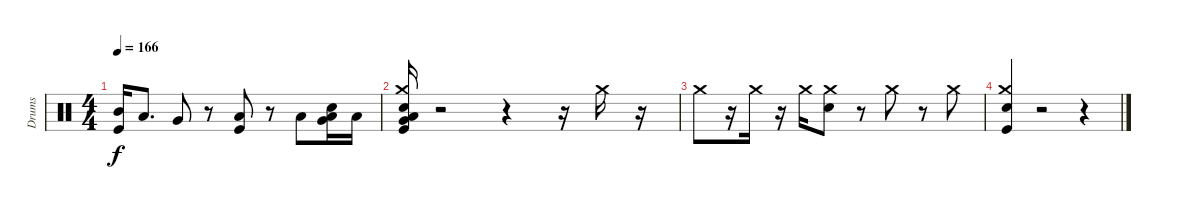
\track ("Drums" "Drums") {instrument percussion}
\staff {score}
\articulation defaults
\ts (4 4)
\tempo 166
\clef neutral
\ks c
("Kick (hit)" "Mid Tom (hit)").16{dy f} "Low Tom (hit)".8{d} "Very Low Tom (hit)".8 r.8 ("Kick (hit)" "Low Floor Tom (hit)").8 r.8 "Low Tom (hit)".8 ("Snare (hit)" "Low Tom (hit)" "Very Low Tom (hit)").16 "Low Floor Tom (hit)".16 |
("Crash medium (hit)" "Low Tom (hit)" "Electric Snare (hit)" "Very Low Tom (hit)" "Kick (hit)").16 r.2 r.4 r.16 "Crash medium (hit)".16 r.16 |
"Crash medium (hit)".8 r.16 "Crash medium (hit)".16 r.16 "Crash medium (hit)".16 ("Snare (hit)" "Crash medium (hit)").8 r.8 "Crash medium (hit)".8 r.8 "Crash medium (hit)".8 |
("Electric Snare (hit)" "Kick (hit)" "Crash medium (hit)").4 r.2 r.4
